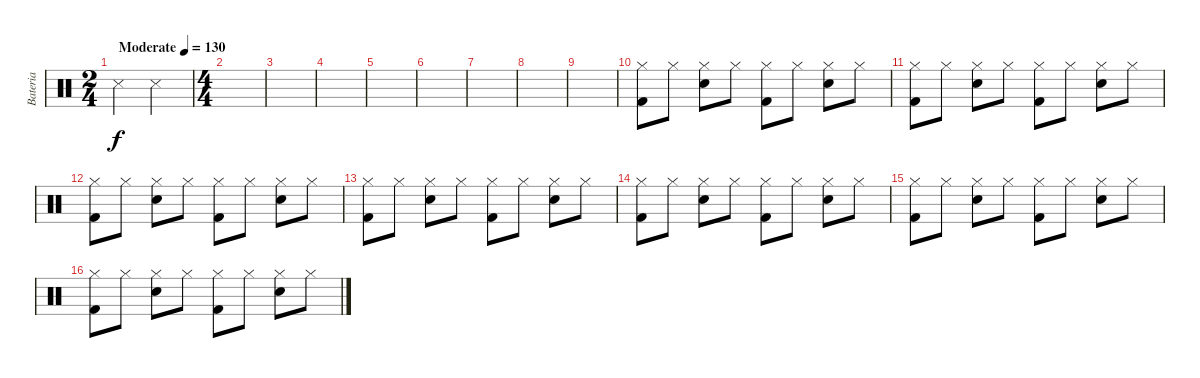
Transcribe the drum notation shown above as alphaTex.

\track ("Bateria" "Bateria") {instrument percussion}
\staff {score}
\articulation defaults
\ts (2 4)
\tempo (130 "Moderate")
\clef neutral
\ks c "Snare (side stick) 3".4{dy f} "Snare (side stick) 3".4
|
\ts (4 4)
|
|
|
|
|
|
|
|
("Hi-Hat (closed)" "Kick (hit) 2").8 "Hi-Hat (closed)".8 ("Hi-Hat (closed)" "Snare (hit) 2").8 "Hi-Hat (closed)".8 ("Hi-Hat (closed)" "Kick (hit) 2").8 "Hi-Hat (closed)".8 ("Hi-Hat (closed)" "Snare (hit) 2").8 "Hi-Hat (closed)".8 |
("Hi-Hat (closed)" "Kick (hit) 2").8 "Hi-Hat (closed)".8 ("Hi-Hat (closed)" "Snare (hit) 2").8 "Hi-Hat (closed)".8 ("Hi-Hat (closed)" "Kick (hit) 2").8 "Hi-Hat (closed)".8 ("Hi-Hat (closed)" "Snare (hit) 2").8 "Hi-Hat (closed)".8 |
("Hi-Hat (closed)" "Kick (hit) 2").8 "Hi-Hat (closed)".8 ("Hi-Hat (closed)" "Snare (hit) 2").8 "Hi-Hat (closed)".8 ("Hi-Hat (closed)" "Kick (hit) 2").8 "Hi-Hat (closed)".8 ("Hi-Hat (closed)" "Snare (hit) 2").8 "Hi-Hat (closed)".8 |
("Hi-Hat (closed)" "Kick (hit) 2").8 "Hi-Hat (closed)".8 ("Hi-Hat (closed)" "Snare (hit) 2").8 "Hi-Hat (closed)".8 ("Hi-Hat (closed)" "Kick (hit) 2").8 "Hi-Hat (closed)".8 ("Hi-Hat (closed)" "Snare (hit) 2").8 "Hi-Hat (closed)".8 |
("Hi-Hat (closed)" "Kick (hit) 2").8 "Hi-Hat (closed)".8 ("Hi-Hat (closed)" "Snare (hit) 2").8 "Hi-Hat (closed)".8 ("Hi-Hat (closed)" "Kick (hit) 2").8 "Hi-Hat (closed)".8 ("Hi-Hat (closed)" "Snare (hit) 2").8 "Hi-Hat (closed)".8 |
("Hi-Hat (closed)" "Kick (hit) 2").8 "Hi-Hat (closed)".8 ("Hi-Hat (closed)" "Snare (hit) 2").8 "Hi-Hat (closed)".8 ("Hi-Hat (closed)" "Kick (hit) 2").8 "Hi-Hat (closed)".8 ("Hi-Hat (closed)" "Snare (hit) 2").8 "Hi-Hat (closed)".8 |
("Hi-Hat (closed)" "Kick (hit) 2").8 "Hi-Hat (closed)".8 ("Hi-Hat (closed)" "Snare (hit) 2").8 "Hi-Hat (closed)".8 ("Hi-Hat (closed)" "Kick (hit) 2").8 "Hi-Hat (closed)".8 ("Hi-Hat (closed)" "Snare (hit) 2").8 "Hi-Hat (closed)".8
